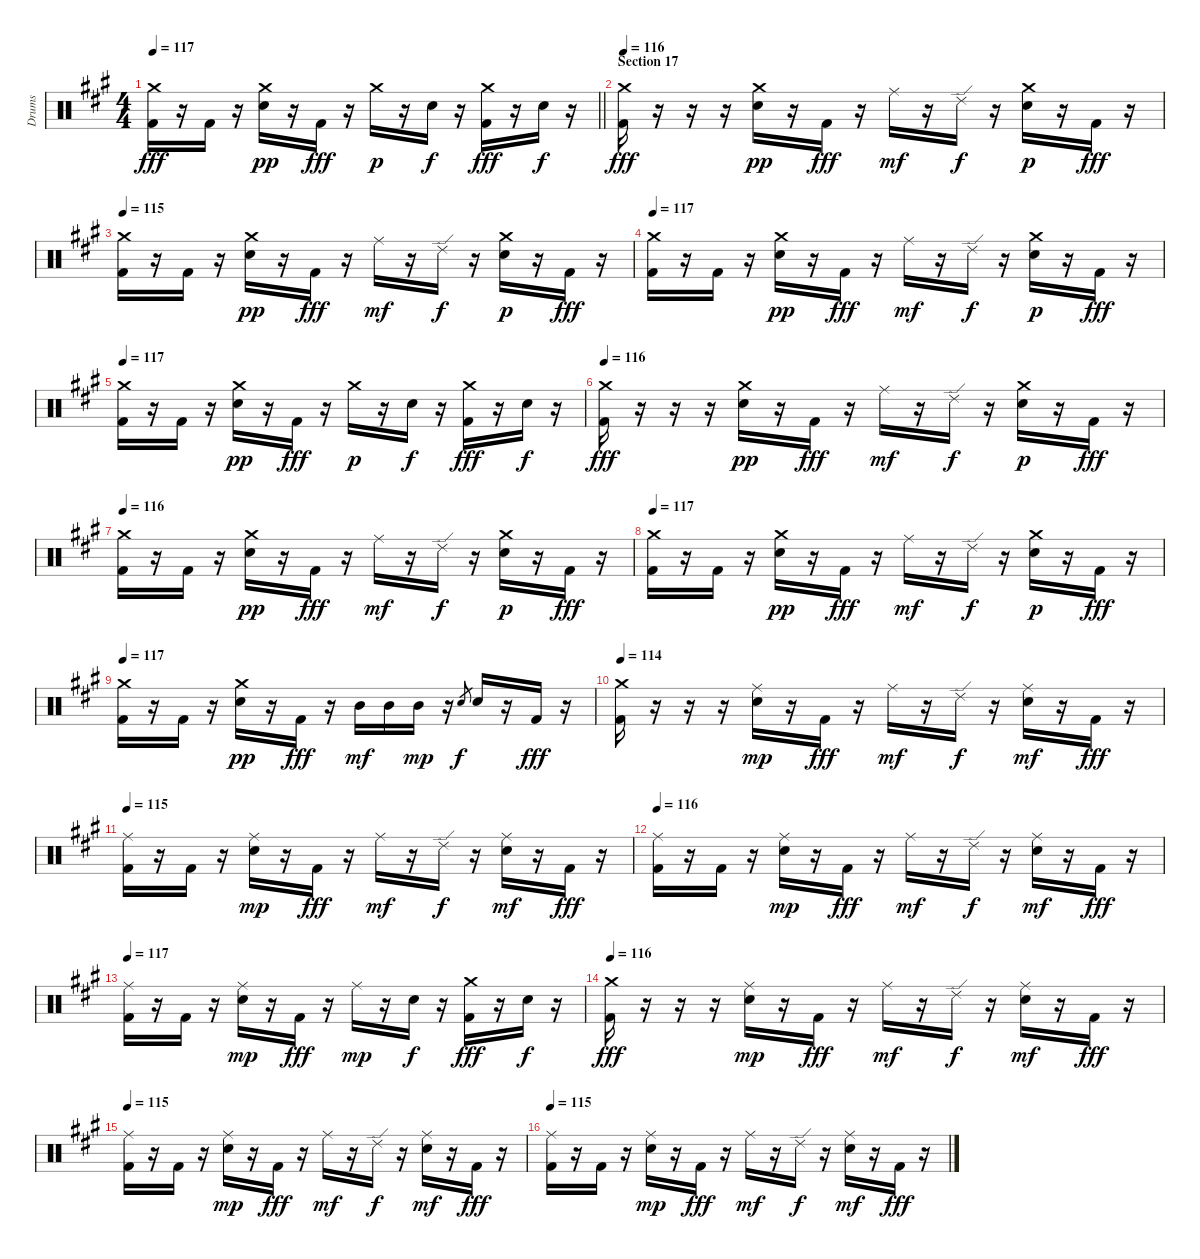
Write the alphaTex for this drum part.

\track ("Drums" "Drums") {instrument percussion}
\staff {score}
\articulation defaults
\ts (4 4)
\tempo 117
\clef neutral
\barLineRight lightlight
\ks f#minor
("Crash medium (hit)" "Kick (hit) 2").16{dy fff} r.16 "Kick (hit) 2".16 r.16 ("Crash medium (hit)" "Electric Snare (hit)").16{dy pp} r.16 "Kick (hit) 2".16{dy fff} r.16 "Crash medium (hit)".16{dy p} r.16 "Electric Snare (hit)".16{dy f} r.16 ("Crash medium (hit)" "Kick (hit) 2").16{dy fff} r.16 "Electric Snare (hit)".16{dy f} r.16 |
\section ("" "Section 17")
\tempo 116
("Crash medium (hit)" "Kick (hit) 2").16{dy fff} r.16 r.16 r.16 ("Crash medium (hit)" "Electric Snare (hit)").16{dy pp} r.16 "Kick (hit) 2".16{dy fff} r.16 "Ride (middle)".16{dy mf} r.16 "Ride (edge) 2".16{dy f} r.16 ("Crash medium (hit)" "Electric Snare (hit)").16{dy p} r.16 "Kick (hit) 2".16{dy fff} r.16 |
\tempo 115
("Crash medium (hit)" "Kick (hit) 2").16 r.16 "Kick (hit) 2".16 r.16 ("Crash medium (hit)" "Electric Snare (hit)").16{dy pp} r.16 "Kick (hit) 2".16{dy fff} r.16 "Ride (middle)".16{dy mf} r.16 "Ride (edge) 2".16{dy f} r.16 ("Crash medium (hit)" "Electric Snare (hit)").16{dy p} r.16 "Kick (hit) 2".16{dy fff} r.16 |
\tempo 117
("Crash medium (hit)" "Kick (hit) 2").16 r.16 "Kick (hit) 2".16 r.16 ("Crash medium (hit)" "Electric Snare (hit)").16{dy pp} r.16 "Kick (hit) 2".16{dy fff} r.16 "Ride (middle)".16{dy mf} r.16 "Ride (edge) 2".16{dy f} r.16 ("Crash medium (hit)" "Electric Snare (hit)").16{dy p} r.16 "Kick (hit) 2".16{dy fff} r.16 |
\tempo 117
("Crash medium (hit)" "Kick (hit) 2").16 r.16 "Kick (hit) 2".16 r.16 ("Crash medium (hit)" "Electric Snare (hit)").16{dy pp} r.16 "Kick (hit) 2".16{dy fff} r.16 "Crash medium (hit)".16{dy p} r.16 "Electric Snare (hit)".16{dy f} r.16 ("Crash medium (hit)" "Kick (hit) 2").16{dy fff} r.16 "Electric Snare (hit)".16{dy f} r.16 |
\tempo 116
("Crash medium (hit)" "Kick (hit) 2").16{dy fff} r.16 r.16 r.16 ("Crash medium (hit)" "Electric Snare (hit)").16{dy pp} r.16 "Kick (hit) 2".16{dy fff} r.16 "Ride (middle)".16{dy mf} r.16 "Ride (edge) 2".16{dy f} r.16 ("Crash medium (hit)" "Electric Snare (hit)").16{dy p} r.16 "Kick (hit) 2".16{dy fff} r.16 |
\tempo 116
("Crash medium (hit)" "Kick (hit) 2").16 r.16 "Kick (hit) 2".16 r.16 ("Crash medium (hit)" "Electric Snare (hit)").16{dy pp} r.16 "Kick (hit) 2".16{dy fff} r.16 "Ride (middle)".16{dy mf} r.16 "Ride (edge) 2".16{dy f} r.16 ("Crash medium (hit)" "Electric Snare (hit)").16{dy p} r.16 "Kick (hit) 2".16{dy fff} r.16 |
\tempo 117
("Crash medium (hit)" "Kick (hit) 2").16 r.16 "Kick (hit) 2".16 r.16 ("Crash medium (hit)" "Electric Snare (hit)").16{dy pp} r.16 "Kick (hit) 2".16{dy fff} r.16 "Ride (middle)".16{dy mf} r.16 "Ride (edge) 2".16{dy f} r.16 ("Crash medium (hit)" "Electric Snare (hit)").16{dy p} r.16 "Kick (hit) 2".16{dy fff} r.16 |
\tempo 117
("Crash medium (hit)" "Kick (hit) 2").16 r.16 "Kick (hit) 2".16 r.16 ("Crash medium (hit)" "Electric Snare (hit)").16{dy pp} r.16 "Kick (hit) 2".16{dy fff} r.16 "Mid Tom (hit)".16{dy mf} "Mid Tom (hit)".16 "Mid Tom (hit)".16{dy mp} r.16 "Electric Snare (hit)".8{gr dy f} "Electric Snare (hit)".16 r.16 "Kick (hit) 2".16{dy fff} r.16 |
\tempo 114
("Crash medium (hit)" "Kick (hit) 2").16 r.16 r.16 r.16 ("Ride (middle)" "Electric Snare (hit)").16{dy mp} r.16 "Kick (hit) 2".16{dy fff} r.16 "Ride (middle)".16{dy mf} r.16 "Ride (edge) 2".16{dy f} r.16 ("Ride (middle)" "Electric Snare (hit)").16{dy mf} r.16 "Kick (hit) 2".16{dy fff} r.16 |
\tempo 115
("Ride (middle)" "Kick (hit) 2").16 r.16 "Kick (hit) 2".16 r.16 ("Ride (middle)" "Electric Snare (hit)").16{dy mp} r.16 "Kick (hit) 2".16{dy fff} r.16 "Ride (middle)".16{dy mf} r.16 "Ride (edge) 2".16{dy f} r.16 ("Ride (middle)" "Electric Snare (hit)").16{dy mf} r.16 "Kick (hit) 2".16{dy fff} r.16 |
\tempo 116
("Ride (middle)" "Kick (hit) 2").16 r.16 "Kick (hit) 2".16 r.16 ("Ride (middle)" "Electric Snare (hit)").16{dy mp} r.16 "Kick (hit) 2".16{dy fff} r.16 "Ride (middle)".16{dy mf} r.16 "Ride (edge) 2".16{dy f} r.16 ("Ride (middle)" "Electric Snare (hit)").16{dy mf} r.16 "Kick (hit) 2".16{dy fff} r.16 |
\tempo 117
("Ride (middle)" "Kick (hit) 2").16 r.16 "Kick (hit) 2".16 r.16 ("Ride (middle)" "Electric Snare (hit)").16{dy mp} r.16 "Kick (hit) 2".16{dy fff} r.16 "Ride (middle)".16{dy mp} r.16 "Electric Snare (hit)".16{dy f} r.16 ("Crash medium (hit)" "Kick (hit) 2").16{dy fff} r.16 "Electric Snare (hit)".16{dy f} r.16 |
\tempo 116
("Crash medium (hit)" "Kick (hit) 2").16{dy fff} r.16 r.16 r.16 ("Ride (middle)" "Electric Snare (hit)").16{dy mp} r.16 "Kick (hit) 2".16{dy fff} r.16 "Ride (middle)".16{dy mf} r.16 "Ride (edge) 2".16{dy f} r.16 ("Ride (middle)" "Electric Snare (hit)").16{dy mf} r.16 "Kick (hit) 2".16{dy fff} r.16 |
\tempo 115
("Ride (middle)" "Kick (hit) 2").16 r.16 "Kick (hit) 2".16 r.16 ("Ride (middle)" "Electric Snare (hit)").16{dy mp} r.16 "Kick (hit) 2".16{dy fff} r.16 "Ride (middle)".16{dy mf} r.16 "Ride (edge) 2".16{dy f} r.16 ("Ride (middle)" "Electric Snare (hit)").16{dy mf} r.16 "Kick (hit) 2".16{dy fff} r.16 |
\tempo 115
("Ride (middle)" "Kick (hit) 2").16 r.16 "Kick (hit) 2".16 r.16 ("Ride (middle)" "Electric Snare (hit)").16{dy mp} r.16 "Kick (hit) 2".16{dy fff} r.16 "Ride (middle)".16{dy mf} r.16 "Ride (edge) 2".16{dy f} r.16 ("Ride (middle)" "Electric Snare (hit)").16{dy mf} r.16 "Kick (hit) 2".16{dy fff} r.16
